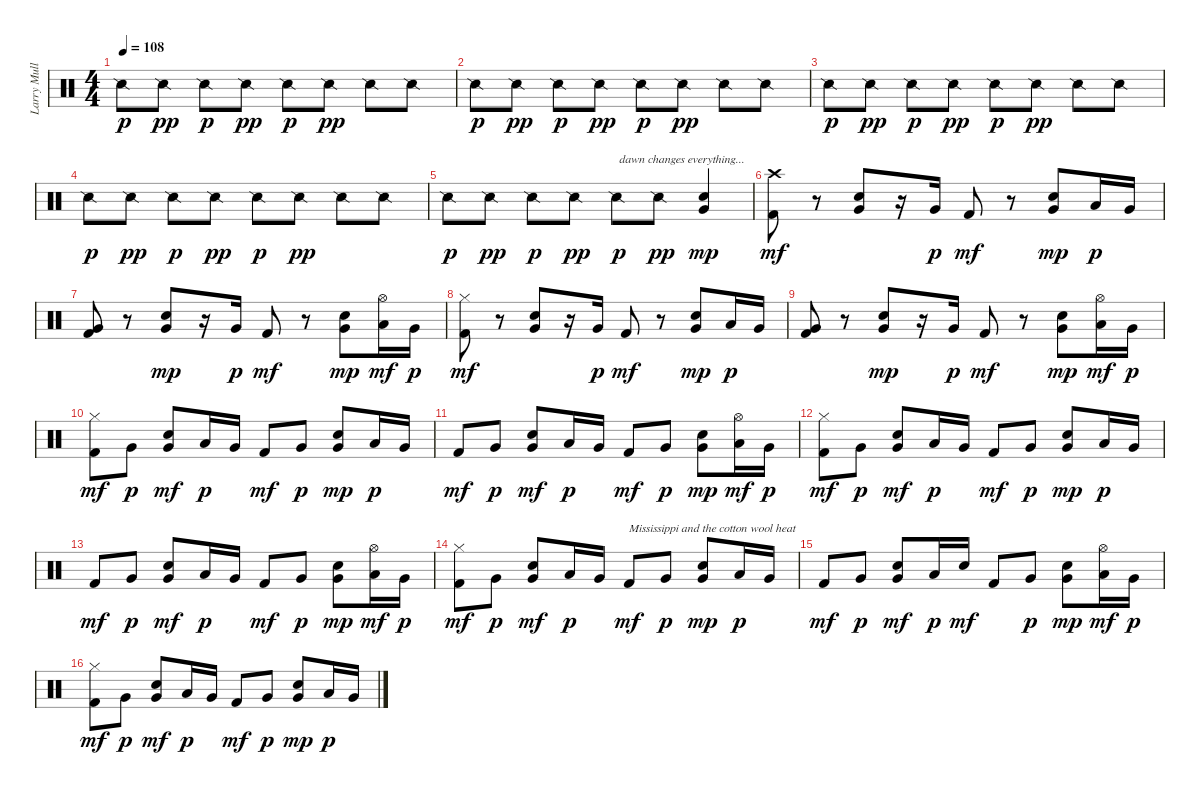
\track ("Larry Mullen Jr." "Larry Mull") {instrument percussion}
\staff {score}
\articulation defaults
\ts (4 4)
\tempo 108
\clef neutral
\ks c "Snare (side stick) 2".8{dy p} "Snare (side stick) 2".8{dy pp} "Snare (side stick) 2".8{dy p} "Snare (side stick) 2".8{dy pp} "Snare (side stick) 2".8{dy p} "Snare (side stick) 2".8{dy pp} "Snare (side stick) 2".8 "Snare (side stick) 2".8
|
"Snare (side stick) 2".8{dy p} "Snare (side stick) 2".8{dy pp} "Snare (side stick) 2".8{dy p} "Snare (side stick) 2".8{dy pp} "Snare (side stick) 2".8{dy p} "Snare (side stick) 2".8{dy pp} "Snare (side stick) 2".8 "Snare (side stick) 2".8 |
"Snare (side stick) 2".8{dy p} "Snare (side stick) 2".8{dy pp} "Snare (side stick) 2".8{dy p} "Snare (side stick) 2".8{dy pp} "Snare (side stick) 2".8{dy p} "Snare (side stick) 2".8{dy pp} "Snare (side stick) 2".8 "Snare (side stick) 2".8 |
"Snare (side stick) 2".8{dy p} "Snare (side stick) 2".8{dy pp} "Snare (side stick) 2".8{dy p} "Snare (side stick) 2".8{dy pp} "Snare (side stick) 2".8{dy p} "Snare (side stick) 2".8{dy pp} "Snare (side stick) 2".8 "Snare (side stick) 2".8 |
"Snare (side stick) 2".8{dy p} "Snare (side stick) 2".8{dy pp} "Snare (side stick) 2".8{dy p} "Snare (side stick) 2".8{dy pp} "Snare (side stick) 2".8{txt "dawn changes everything..." dy p} "Snare (side stick) 2".8{dy pp} ("Electric Snare (hit)" "Very Low Tom (hit)").4{dy mp} |
("Kick (hit) 2" "Crash high (hit)").8{dy mf} r.8 ("Electric Snare (hit)" "Very Low Tom (hit)").8 r.16 "Very Low Tom (hit)".16{dy p} "Kick (hit) 2".8{dy mf} r.8 ("Electric Snare (hit)" "Very Low Tom (hit)").8{dy mp} "Low Floor Tom (hit)".16{dy p} "Very Low Tom (hit)".16 |
("Kick (hit) 2" "Very Low Tom (hit)").8 r.8 ("Electric Snare (hit)" "Very Low Tom (hit)").8{dy mp} r.16 "Very Low Tom (hit)".16{dy p} "Kick (hit) 2".8{dy mf} r.8 ("Electric Snare (hit)" "Very Low Tom (hit)").8{dy mp} ("Low Floor Tom (hit)" "Hi-Hat (open)").16{dy mf} "Very Low Tom (hit)".16{dy p} |
("Kick (hit) 2" "Hi-Hat (closed)").8{dy mf} r.8 ("Electric Snare (hit)" "Very Low Tom (hit)").8 r.16 "Very Low Tom (hit)".16{dy p} "Kick (hit) 2".8{dy mf} r.8 ("Electric Snare (hit)" "Very Low Tom (hit)").8{dy mp} "Low Floor Tom (hit)".16{dy p} "Very Low Tom (hit)".16 |
("Kick (hit) 2" "Very Low Tom (hit)").8 r.8 ("Electric Snare (hit)" "Very Low Tom (hit)").8{dy mp} r.16 "Very Low Tom (hit)".16{dy p} "Kick (hit) 2".8{dy mf} r.8 ("Electric Snare (hit)" "Very Low Tom (hit)").8{dy mp} ("Low Floor Tom (hit)" "Hi-Hat (open)").16{dy mf} "Very Low Tom (hit)".16{dy p} |
("Kick (hit) 2" "Hi-Hat (closed)").8{dy mf} "Very Low Tom (hit)".8{dy p} ("Electric Snare (hit)" "Very Low Tom (hit)").8{dy mf} "Low Floor Tom (hit)".16{dy p} "Very Low Tom (hit)".16 "Kick (hit) 2".8{dy mf} "Very Low Tom (hit)".8{dy p} ("Electric Snare (hit)" "Very Low Tom (hit)").8{dy mp} "Low Floor Tom (hit)".16{dy p} "Very Low Tom (hit)".16 |
"Kick (hit) 2".8{dy mf} "Very Low Tom (hit)".8{dy p} ("Electric Snare (hit)" "Very Low Tom (hit)").8{dy mf} "Low Floor Tom (hit)".16{dy p} "Very Low Tom (hit)".16 "Kick (hit) 2".8{dy mf} "Very Low Tom (hit)".8{dy p} ("Electric Snare (hit)" "Very Low Tom (hit)").8{dy mp} ("Low Floor Tom (hit)" "Hi-Hat (open)").16{dy mf} "Very Low Tom (hit)".16{dy p} |
("Kick (hit) 2" "Hi-Hat (closed)").8{dy mf} "Very Low Tom (hit)".8{dy p} ("Electric Snare (hit)" "Very Low Tom (hit)").8{dy mf} "Low Floor Tom (hit)".16{dy p} "Very Low Tom (hit)".16 "Kick (hit) 2".8{dy mf} "Very Low Tom (hit)".8{dy p} ("Electric Snare (hit)" "Very Low Tom (hit)").8{dy mp} "Low Floor Tom (hit)".16{dy p} "Very Low Tom (hit)".16 |
"Kick (hit) 2".8{dy mf} "Very Low Tom (hit)".8{dy p} ("Electric Snare (hit)" "Very Low Tom (hit)").8{dy mf} "Low Floor Tom (hit)".16{dy p} "Very Low Tom (hit)".16 "Kick (hit) 2".8{dy mf} "Very Low Tom (hit)".8{dy p} ("Electric Snare (hit)" "Very Low Tom (hit)").8{dy mp} ("Low Floor Tom (hit)" "Hi-Hat (open)").16{dy mf} "Very Low Tom (hit)".16{dy p} |
("Kick (hit) 2" "Hi-Hat (closed)").8{dy mf} "Very Low Tom (hit)".8{dy p} ("Electric Snare (hit)" "Very Low Tom (hit)").8{dy mf} "Low Floor Tom (hit)".16{dy p} "Very Low Tom (hit)".16 "Kick (hit) 2".8{txt "Mississippi and the cotton wool heat" dy mf} "Very Low Tom (hit)".8{dy p} ("Electric Snare (hit)" "Very Low Tom (hit)").8{dy mp} "Low Floor Tom (hit)".16{dy p} "Very Low Tom (hit)".16 |
"Kick (hit) 2".8{dy mf} "Very Low Tom (hit)".8{dy p} ("Electric Snare (hit)" "Very Low Tom (hit)").8{dy mf} "Low Floor Tom (hit)".16{dy p} "Electric Snare (hit)".16{dy mf} "Kick (hit) 2".8 "Very Low Tom (hit)".8{dy p} ("Electric Snare (hit)" "Very Low Tom (hit)").8{dy mp} ("Low Floor Tom (hit)" "Hi-Hat (open)").16{dy mf} "Very Low Tom (hit)".16{dy p} |
("Kick (hit) 2" "Hi-Hat (closed)").8{dy mf} "Very Low Tom (hit)".8{dy p} ("Electric Snare (hit)" "Very Low Tom (hit)").8{dy mf} "Low Floor Tom (hit)".16{dy p} "Very Low Tom (hit)".16 "Kick (hit) 2".8{dy mf} "Very Low Tom (hit)".8{dy p} ("Electric Snare (hit)" "Very Low Tom (hit)").8{dy mp} "Low Floor Tom (hit)".16{dy p} "Very Low Tom (hit)".16
